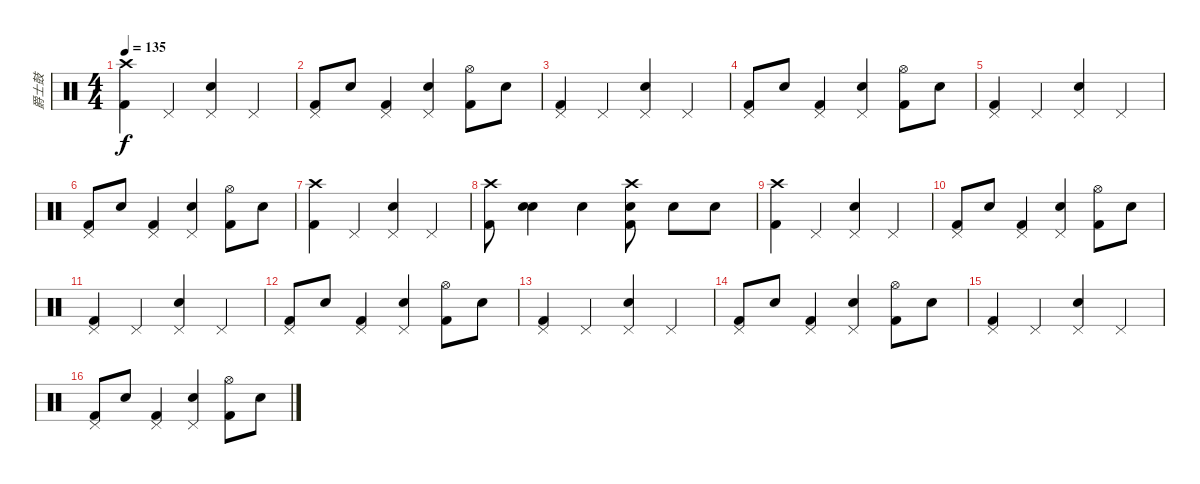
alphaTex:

\track ("爵士鼓" "爵士鼓") {instrument percussion}
\staff {score}
\articulation defaults
\ts (4 4)
\tempo 135
\clef neutral
\ks c
("Crash high (hit)" "Kick (hit) 2").4{dy f} "Pedal Hi-Hat (hit)".4 ("Pedal Hi-Hat (hit)" "Snare (hit) 2").4 "Pedal Hi-Hat (hit)".4 |
("Pedal Hi-Hat (hit)" "Kick (hit) 2").8 "Snare (hit) 2".8 ("Pedal Hi-Hat (hit)" "Kick (hit) 2").4 ("Pedal Hi-Hat (hit)" "Snare (hit) 2").4 ("Hi-Hat (open)" "Kick (hit) 2").8 "Snare (hit) 2".8 |
("Pedal Hi-Hat (hit)" "Kick (hit) 2").4 "Pedal Hi-Hat (hit)".4 ("Pedal Hi-Hat (hit)" "Snare (hit) 2").4 "Pedal Hi-Hat (hit)".4 |
("Pedal Hi-Hat (hit)" "Kick (hit) 2").8 "Snare (hit) 2".8 ("Pedal Hi-Hat (hit)" "Kick (hit) 2").4 ("Pedal Hi-Hat (hit)" "Snare (hit) 2").4 ("Hi-Hat (open)" "Kick (hit) 2").8 "Snare (hit) 2".8 |
("Pedal Hi-Hat (hit)" "Kick (hit) 2").4 "Pedal Hi-Hat (hit)".4 ("Pedal Hi-Hat (hit)" "Snare (hit) 2").4 "Pedal Hi-Hat (hit)".4 |
("Pedal Hi-Hat (hit)" "Kick (hit) 2").8 "Snare (hit) 2".8 ("Pedal Hi-Hat (hit)" "Kick (hit) 2").4 ("Pedal Hi-Hat (hit)" "Snare (hit) 2").4 ("Hi-Hat (open)" "Kick (hit) 2").8 "Snare (hit) 2".8 |
("Crash high (hit)" "Kick (hit) 2").4 "Pedal Hi-Hat (hit)".4 ("Pedal Hi-Hat (hit)" "Snare (hit) 2").4 "Pedal Hi-Hat (hit)".4 |
("Crash high (hit)" "Kick (hit) 2").8 ("Snare (hit) 2" "Electric Snare (hit)").4 "Snare (hit) 2".4 ("Crash high (hit)" "Snare (hit) 2" "Kick (hit) 2").8 "Electric Snare (hit)".8 "Electric Snare (hit)".8 |
("Crash high (hit)" "Kick (hit) 2").4 "Pedal Hi-Hat (hit)".4 ("Pedal Hi-Hat (hit)" "Snare (hit) 2").4 "Pedal Hi-Hat (hit)".4 |
("Pedal Hi-Hat (hit)" "Kick (hit) 2").8 "Snare (hit) 2".8 ("Pedal Hi-Hat (hit)" "Kick (hit) 2").4 ("Pedal Hi-Hat (hit)" "Snare (hit) 2").4 ("Hi-Hat (open)" "Kick (hit) 2").8 "Snare (hit) 2".8 |
("Pedal Hi-Hat (hit)" "Kick (hit) 2").4 "Pedal Hi-Hat (hit)".4 ("Pedal Hi-Hat (hit)" "Snare (hit) 2").4 "Pedal Hi-Hat (hit)".4 |
("Pedal Hi-Hat (hit)" "Kick (hit) 2").8 "Snare (hit) 2".8 ("Pedal Hi-Hat (hit)" "Kick (hit) 2").4 ("Pedal Hi-Hat (hit)" "Snare (hit) 2").4 ("Hi-Hat (open)" "Kick (hit) 2").8 "Snare (hit) 2".8 |
("Pedal Hi-Hat (hit)" "Kick (hit) 2").4 "Pedal Hi-Hat (hit)".4 ("Pedal Hi-Hat (hit)" "Snare (hit) 2").4 "Pedal Hi-Hat (hit)".4 |
("Pedal Hi-Hat (hit)" "Kick (hit) 2").8 "Snare (hit) 2".8 ("Pedal Hi-Hat (hit)" "Kick (hit) 2").4 ("Pedal Hi-Hat (hit)" "Snare (hit) 2").4 ("Hi-Hat (open)" "Kick (hit) 2").8 "Snare (hit) 2".8 |
("Pedal Hi-Hat (hit)" "Kick (hit) 2").4 "Pedal Hi-Hat (hit)".4 ("Pedal Hi-Hat (hit)" "Snare (hit) 2").4 "Pedal Hi-Hat (hit)".4 |
("Pedal Hi-Hat (hit)" "Kick (hit) 2").8 "Snare (hit) 2".8 ("Pedal Hi-Hat (hit)" "Kick (hit) 2").4 ("Pedal Hi-Hat (hit)" "Snare (hit) 2").4 ("Hi-Hat (open)" "Kick (hit) 2").8 "Snare (hit) 2".8
